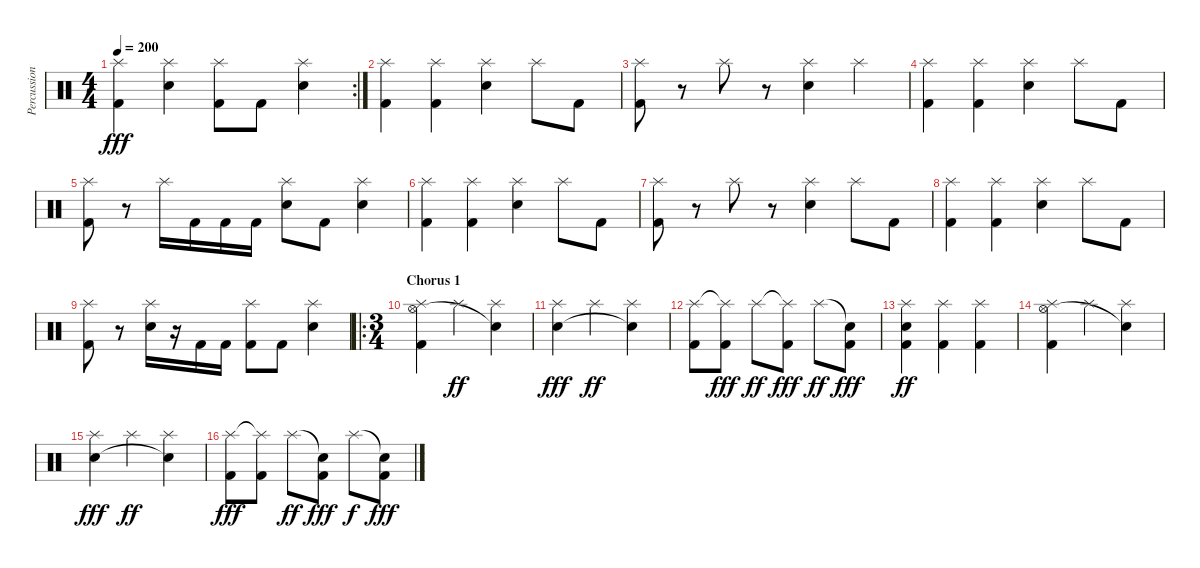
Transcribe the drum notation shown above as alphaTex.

\track ("Percussion" "Percussion") {instrument percussion}
\staff {score}
\articulation defaults
\rc 2
\ts (4 4)
\tempo 200
\clef neutral
\ks c
("Splash (hit)" "Kick (hit) 2").4{dy fff} ("Splash (hit)" "Electric Snare (hit)").4 ("Splash (hit)" "Kick (hit) 2").8 "Kick (hit) 2".8 ("Splash (hit)" "Electric Snare (hit)").4 |
("Splash (hit)" "Kick (hit) 2").4 ("Splash (hit)" "Kick (hit) 2").4 ("Splash (hit)" "Electric Snare (hit)").4 "Splash (hit)".8 "Kick (hit) 2".8 |
("Splash (hit)" "Kick (hit) 2").8 r.8 "Splash (hit)".8 r.8 ("Splash (hit)" "Electric Snare (hit)").4 "Splash (hit)".4 |
("Splash (hit)" "Kick (hit) 2").4 ("Splash (hit)" "Kick (hit) 2").4 ("Splash (hit)" "Electric Snare (hit)").4 "Splash (hit)".8 "Kick (hit) 2".8 |
("Splash (hit)" "Kick (hit) 2").8 r.8 "Splash (hit)".16 "Kick (hit) 2".16 "Kick (hit) 2".16 "Kick (hit) 2".16 ("Splash (hit)" "Electric Snare (hit)").8 "Kick (hit) 2".8 ("Splash (hit)" "Electric Snare (hit)").4 |
("Splash (hit)" "Kick (hit) 2").4 ("Splash (hit)" "Kick (hit) 2").4 ("Splash (hit)" "Electric Snare (hit)").4 "Splash (hit)".8 "Kick (hit) 2".8 |
("Splash (hit)" "Kick (hit) 2").8 r.8 "Splash (hit)".8 r.8 ("Splash (hit)" "Electric Snare (hit)").4 "Splash (hit)".8 "Kick (hit) 2".8 |
("Splash (hit)" "Kick (hit) 2").4 ("Splash (hit)" "Kick (hit) 2").4 ("Splash (hit)" "Electric Snare (hit)").4 "Splash (hit)".8 "Kick (hit) 2".8 |
("Splash (hit)" "Kick (hit) 2").8 r.8 ("Splash (hit)" "Electric Snare (hit)").16 r.16 "Kick (hit) 2".16 "Kick (hit) 2".16 ("Splash (hit)" "Kick (hit) 2").8 "Kick (hit) 2".8 ("Splash (hit)" "Electric Snare (hit)").4 |
\ro
\ts (3 4)
\section ("" "Chorus 1")
("Splash (hit)" "Hi-Hat (open)" "Kick (hit) 2").4 "Splash (hit)".4{dy ff} ("Splash (hit)" "Snare (hit)"{t}).4 |
("Splash (hit)" "Electric Snare (hit)").4{dy fff} "Splash (hit)".4{dy ff} ("Splash (hit)" "Snare (hit)"{t}).4 |
("Splash (hit)" "Kick (hit) 2").8 ("Splash (hit)"{t} "Kick (hit) 2").8{dy fff} "Splash (hit)".8{dy ff} ("Splash (hit)"{t} "Kick (hit) 2").8{dy fff} "Splash (hit)".8{dy ff} ("Snare (hit)"{t} "Kick (hit) 2").8{dy fff} |
("Splash (hit)" "Electric Snare (hit)" "Kick (hit) 2").4{dy ff} ("Splash (hit)" "Kick (hit) 2").4 ("Splash (hit)" "Kick (hit) 2").4 |
("Splash (hit)" "Hi-Hat (open)" "Kick (hit) 2").4 "Splash (hit)".4 ("Splash (hit)" "Snare (hit)"{t}).4 |
("Splash (hit)" "Electric Snare (hit)").4{dy fff} "Splash (hit)".4{dy ff} ("Splash (hit)" "Snare (hit)"{t}).4 |
("Splash (hit)" "Kick (hit) 2").8{dy fff} ("Splash (hit)"{t} "Kick (hit) 2").8 "Splash (hit)".8{dy ff} ("Snare (hit)"{t} "Kick (hit) 2").8{dy fff} "Splash (hit)".8{dy f} ("Snare (hit)"{t} "Kick (hit) 2").8{dy fff}
